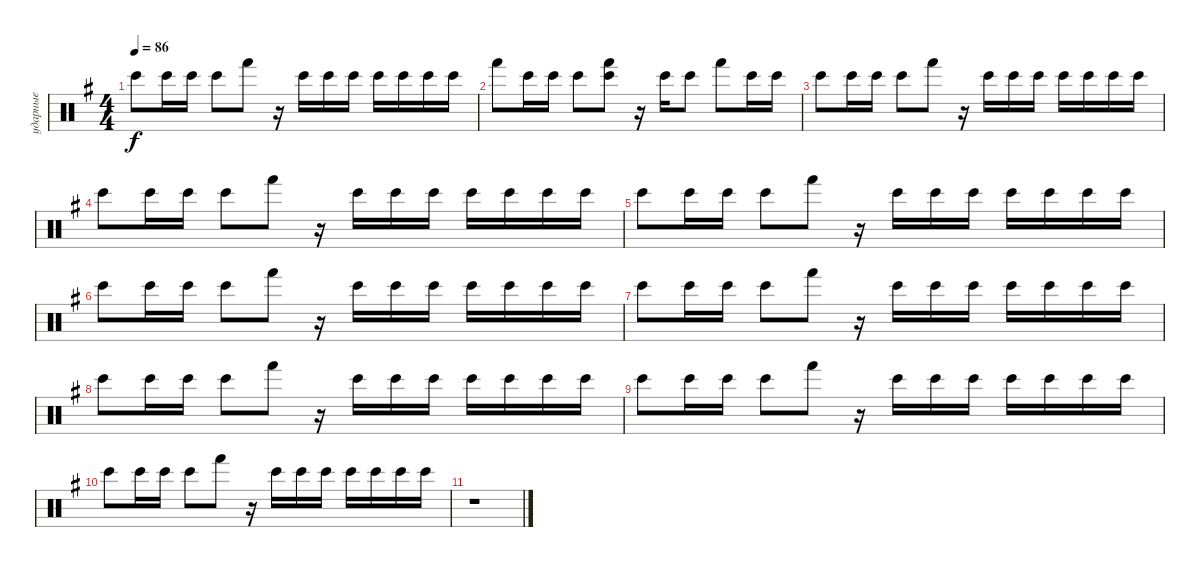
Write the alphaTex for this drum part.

\track ("ударные" "ударные") {instrument percussion}
\staff {score}
\articulation defaults
\ts (4 4)
\tempo 86
\clef neutral
\ks eminor "Bongo High (hit)".8{dy f} "Bongo High (hit)".16 "Bongo High (hit)".16 "Bongo High (hit)".8 "Hand (hit)".8
r.16 "Bongo High (hit)".16 "Bongo High (hit)".16 "Bongo High (hit)".16 "Bongo High (hit)".16 "Bongo High (hit)".16 "Bongo High (hit)".16 "Bongo High (hit)".16 |
"Hand (hit)".8 "Bongo High (hit)".16 "Bongo High (hit)".16 "Bongo High (hit)".8 ("Bongo High (hit)" "Hand (hit)").8 r.16 "Bongo High (hit)".16 "Bongo High (hit)".8 "Hand (hit)".8 "Bongo High (hit)".16 "Bongo High (hit)".16 |
"Bongo High (hit)".8 "Bongo High (hit)".16 "Bongo High (hit)".16 "Bongo High (hit)".8 "Hand (hit)".8 r.16 "Bongo High (hit)".16 "Bongo High (hit)".16 "Bongo High (hit)".16 "Bongo High (hit)".16 "Bongo High (hit)".16 "Bongo High (hit)".16 "Bongo High (hit)".16 |
"Bongo High (hit)".8 "Bongo High (hit)".16 "Bongo High (hit)".16 "Bongo High (hit)".8 "Hand (hit)".8 r.16 "Bongo High (hit)".16 "Bongo High (hit)".16 "Bongo High (hit)".16 "Bongo High (hit)".16 "Bongo High (hit)".16 "Bongo High (hit)".16 "Bongo High (hit)".16 |
"Bongo High (hit)".8 "Bongo High (hit)".16 "Bongo High (hit)".16 "Bongo High (hit)".8 "Hand (hit)".8 r.16 "Bongo High (hit)".16 "Bongo High (hit)".16 "Bongo High (hit)".16 "Bongo High (hit)".16 "Bongo High (hit)".16 "Bongo High (hit)".16 "Bongo High (hit)".16 |
"Bongo High (hit)".8 "Bongo High (hit)".16 "Bongo High (hit)".16 "Bongo High (hit)".8 "Hand (hit)".8 r.16 "Bongo High (hit)".16 "Bongo High (hit)".16 "Bongo High (hit)".16 "Bongo High (hit)".16 "Bongo High (hit)".16 "Bongo High (hit)".16 "Bongo High (hit)".16 |
"Bongo High (hit)".8 "Bongo High (hit)".16 "Bongo High (hit)".16 "Bongo High (hit)".8 "Hand (hit)".8 r.16 "Bongo High (hit)".16 "Bongo High (hit)".16 "Bongo High (hit)".16 "Bongo High (hit)".16 "Bongo High (hit)".16 "Bongo High (hit)".16 "Bongo High (hit)".16 |
"Bongo High (hit)".8 "Bongo High (hit)".16 "Bongo High (hit)".16 "Bongo High (hit)".8 "Hand (hit)".8 r.16 "Bongo High (hit)".16 "Bongo High (hit)".16 "Bongo High (hit)".16 "Bongo High (hit)".16 "Bongo High (hit)".16 "Bongo High (hit)".16 "Bongo High (hit)".16 |
"Bongo High (hit)".8 "Bongo High (hit)".16 "Bongo High (hit)".16 "Bongo High (hit)".8 "Hand (hit)".8 r.16 "Bongo High (hit)".16 "Bongo High (hit)".16 "Bongo High (hit)".16 "Bongo High (hit)".16 "Bongo High (hit)".16 "Bongo High (hit)".16 "Bongo High (hit)".16 |
"Bongo High (hit)".8 "Bongo High (hit)".16 "Bongo High (hit)".16 "Bongo High (hit)".8 "Hand (hit)".8 r.16 "Bongo High (hit)".16 "Bongo High (hit)".16 "Bongo High (hit)".16 "Bongo High (hit)".16 "Bongo High (hit)".16 "Bongo High (hit)".16 "Bongo High (hit)".16 |
r.1
